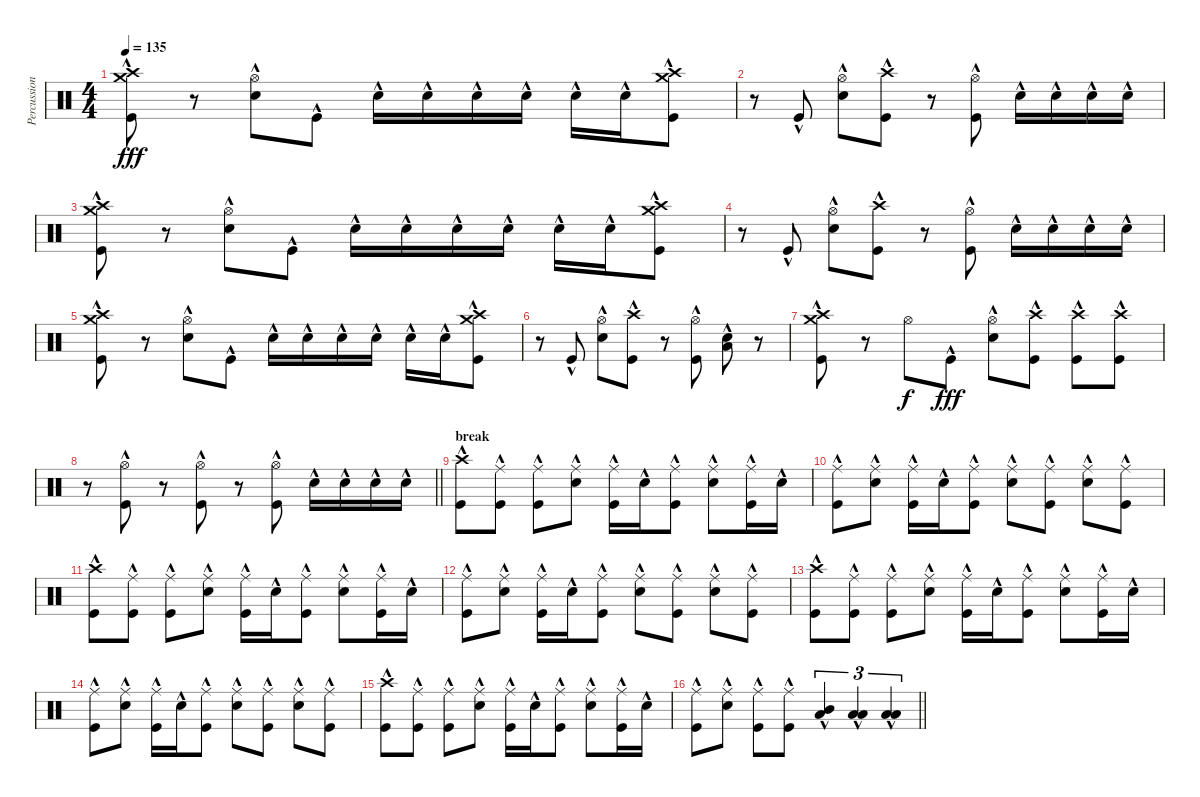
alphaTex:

\track ("Percussion" "Percussion") {instrument percussion}
\staff {score}
\articulation defaults
\ts (4 4)
\tempo 135
\clef neutral
\ks c
("Crash medium (hit)" "Crash high (hit)" "Kick (hit)"{hac}).8{dy fff} r.8 ("Hi-Hat (open)" "Snare (hit) 2"{hac}).8 "Kick (hit)"{hac}.8 "Snare (hit) 2"{hac}.16 "Snare (hit) 2"{hac}.16 "Snare (hit) 2"{hac}.16 "Snare (hit) 2"{hac}.16 "Snare (hit) 2"{hac}.16 "Snare (hit) 2"{hac}.16 ("Crash medium (hit)" "Crash high (hit)" "Kick (hit)"{hac}).8 |
r.8 "Kick (hit)"{hac}.8 ("Hi-Hat (open)" "Snare (hit) 2"{hac}).8 ("Crash high (hit)" "Kick (hit)"{hac}).8 r.8 ("Hi-Hat (open)" "Kick (hit)"{hac}).8 "Snare (hit) 2"{hac}.16 "Snare (hit) 2"{hac}.16 "Snare (hit) 2"{hac}.16 "Snare (hit) 2"{hac}.16 |
("Crash medium (hit)" "Crash high (hit)" "Kick (hit)"{hac}).8 r.8 ("Hi-Hat (open)" "Snare (hit) 2"{hac}).8 "Kick (hit)"{hac}.8 "Snare (hit) 2"{hac}.16 "Snare (hit) 2"{hac}.16 "Snare (hit) 2"{hac}.16 "Snare (hit) 2"{hac}.16 "Snare (hit) 2"{hac}.16 "Snare (hit) 2"{hac}.16 ("Crash medium (hit)" "Crash high (hit)" "Kick (hit)"{hac}).8 |
r.8 "Kick (hit)"{hac}.8 ("Hi-Hat (open)" "Snare (hit) 2"{hac}).8 ("Crash high (hit)" "Kick (hit)"{hac}).8 r.8 ("Hi-Hat (open)" "Kick (hit)"{hac}).8 "Snare (hit) 2"{hac}.16 "Snare (hit) 2"{hac}.16 "Snare (hit) 2"{hac}.16 "Snare (hit) 2"{hac}.16 |
("Crash medium (hit)" "Crash high (hit)" "Kick (hit)"{hac}).8 r.8 ("Hi-Hat (open)" "Snare (hit) 2"{hac}).8 "Kick (hit)"{hac}.8 "Snare (hit) 2"{hac}.16 "Snare (hit) 2"{hac}.16 "Snare (hit) 2"{hac}.16 "Snare (hit) 2"{hac}.16 "Snare (hit) 2"{hac}.16 "Snare (hit) 2"{hac}.16 ("Crash medium (hit)" "Crash high (hit)" "Kick (hit)"{hac}).8 |
r.8 "Kick (hit)"{hac}.8 ("Hi-Hat (open)" "Snare (hit) 2"{hac}).8 ("Crash high (hit)" "Kick (hit)"{hac}).8 r.8 ("Hi-Hat (open)" "Kick (hit)"{hac}).8 ("Low Floor Tom (hit)"{hac} "Snare (hit) 2"{hac}).8 r.8 |
("Crash medium (hit)" "Crash high (hit)" "Kick (hit)"{hac}).8 r.8 "Hi-Hat (open)".8{dy f} "Kick (hit)"{hac}.8{dy fff} ("Hi-Hat (open)" "Snare (hit) 2"{hac}).8 ("Crash high (hit)" "Kick (hit)"{hac}).8 ("Crash high (hit)" "Kick (hit)"{hac}).8 ("Crash high (hit)" "Kick (hit)"{hac}).8 |
\barLineRight lightlight
r.8 ("Hi-Hat (open)" "Kick (hit)"{hac}).8 r.8 ("Hi-Hat (open)" "Kick (hit)"{hac}).8 r.8 ("Hi-Hat (open)" "Kick (hit)"{hac}).8 "Snare (hit) 2"{hac}.16 "Snare (hit) 2"{hac}.16 "Snare (hit) 2"{hac}.16 "Snare (hit) 2"{hac}.16 |
\section ("" "break")
("Crash high (hit)" "Kick (hit)"{hac}).8 ("Ride (middle)" "Kick (hit)"{hac}).8 ("Ride (middle)" "Kick (hit)"{hac}).8 ("Ride (middle)" "Snare (hit) 2"{hac}).8 ("Ride (middle)" "Kick (hit)"{hac}).16 "Snare (hit) 2"{hac}.16 ("Ride (middle)" "Kick (hit)"{hac}).8 ("Ride (middle)" "Snare (hit) 2"{hac}).8 ("Ride (middle)" "Kick (hit)"{hac}).16 "Snare (hit) 2"{hac}.16 |
("Ride (middle)" "Kick (hit)"{hac}).8 ("Ride (middle)" "Snare (hit) 2"{hac}).8 ("Ride (middle)" "Kick (hit)"{hac}).16 "Snare (hit) 2"{hac}.16 ("Ride (middle)" "Kick (hit)"{hac}).8 ("Ride (middle)" "Snare (hit) 2"{hac}).8 ("Ride (middle)" "Kick (hit)"{hac}).8 ("Ride (middle)" "Snare (hit) 2"{hac}).8 ("Ride (middle)" "Kick (hit)"{hac}).8 |
("Crash high (hit)" "Kick (hit)"{hac}).8 ("Ride (middle)" "Kick (hit)"{hac}).8 ("Ride (middle)" "Kick (hit)"{hac}).8 ("Ride (middle)" "Snare (hit) 2"{hac}).8 ("Ride (middle)" "Kick (hit)"{hac}).16 "Snare (hit) 2"{hac}.16 ("Ride (middle)" "Kick (hit)"{hac}).8 ("Ride (middle)" "Snare (hit) 2"{hac}).8 ("Ride (middle)" "Kick (hit)"{hac}).16 "Snare (hit) 2"{hac}.16 |
("Ride (middle)" "Kick (hit)"{hac}).8 ("Ride (middle)" "Snare (hit) 2"{hac}).8 ("Ride (middle)" "Kick (hit)"{hac}).16 "Snare (hit) 2"{hac}.16 ("Ride (middle)" "Kick (hit)"{hac}).8 ("Ride (middle)" "Snare (hit) 2"{hac}).8 ("Ride (middle)" "Kick (hit)"{hac}).8 ("Ride (middle)" "Snare (hit) 2"{hac}).8 ("Ride (middle)" "Kick (hit)"{hac}).8 |
("Crash high (hit)" "Kick (hit)"{hac}).8 ("Ride (middle)" "Kick (hit)"{hac}).8 ("Ride (middle)" "Kick (hit)"{hac}).8 ("Ride (middle)" "Snare (hit) 2"{hac}).8 ("Ride (middle)" "Kick (hit)"{hac}).16 "Snare (hit) 2"{hac}.16 ("Ride (middle)" "Kick (hit)"{hac}).8 ("Ride (middle)" "Snare (hit) 2"{hac}).8 ("Ride (middle)" "Kick (hit)"{hac}).16 "Snare (hit) 2"{hac}.16 |
("Ride (middle)" "Kick (hit)"{hac}).8 ("Ride (middle)" "Snare (hit) 2"{hac}).8 ("Ride (middle)" "Kick (hit)"{hac}).16 "Snare (hit) 2"{hac}.16 ("Ride (middle)" "Kick (hit)"{hac}).8 ("Ride (middle)" "Snare (hit) 2"{hac}).8 ("Ride (middle)" "Kick (hit)"{hac}).8 ("Ride (middle)" "Snare (hit) 2"{hac}).8 ("Ride (middle)" "Kick (hit)"{hac}).8 |
("Crash high (hit)" "Kick (hit)"{hac}).8 ("Ride (middle)" "Kick (hit)"{hac}).8 ("Ride (middle)" "Kick (hit)"{hac}).8 ("Ride (middle)" "Snare (hit) 2"{hac}).8 ("Ride (middle)" "Kick (hit)"{hac}).16 "Snare (hit) 2"{hac}.16 ("Ride (middle)" "Kick (hit)"{hac}).8 ("Ride (middle)" "Snare (hit) 2"{hac}).8 ("Ride (middle)" "Kick (hit)"{hac}).16 "Snare (hit) 2"{hac}.16 |
\barLineRight lightlight
("Ride (middle)" "Kick (hit)"{hac}).8 ("Ride (middle)" "Snare (hit) 2"{hac}).8 ("Ride (middle)" "Kick (hit)"{hac}).8 ("Ride (middle)" "Kick (hit)"{hac}).8 ("Mid Tom (hit)"{hac} "Low Tom (hit)"{hac}).4{tu (3 2)} ("Low Tom (hit)"{hac} "Low Floor Tom (hit)"{hac}).4{tu (3 2)} ("Low Floor Tom (hit)"{hac} "Low Floor Tom (hit)"{hac}).4{tu (3 2)}
